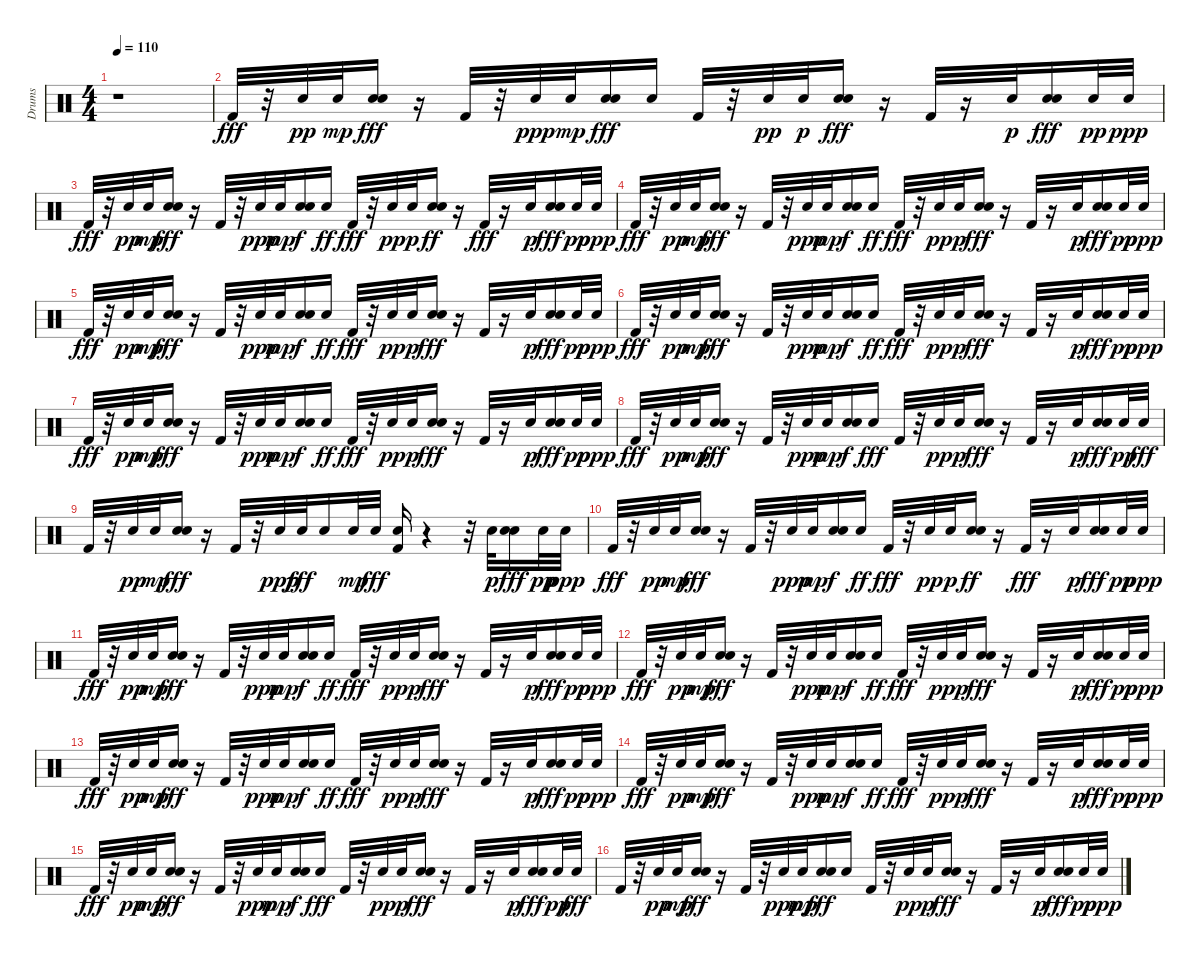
\track ("Drums" "Drums") {instrument percussion}
\staff {score}
\articulation defaults
\ts (4 4)
\tempo 110
\clef neutral
\ks c
r.1{dy fff} |
"Kick (hit) 2".32 r.32 "Electric Snare (hit)".32{dy pp} "Electric Snare (hit)".32{dy mp} ("Snare (hit) 2" "Electric Snare (hit)").16{dy fff} r.16 "Kick (hit) 2".32 r.32 "Electric Snare (hit)".32{dy ppp} "Electric Snare (hit)".32{dy mp} ("Snare (hit) 2" "Electric Snare (hit)").16{dy fff} "Electric Snare (hit)".16 "Kick (hit) 2".32 r.32 "Electric Snare (hit)".32{dy pp} "Electric Snare (hit)".32{dy p} ("Snare (hit) 2" "Electric Snare (hit)").16{dy fff} r.16 "Kick (hit) 2".32 r.16 "Electric Snare (hit)".32{dy p} ("Snare (hit) 2" "Electric Snare (hit)").16{dy fff} "Electric Snare (hit)".32{dy pp} "Electric Snare (hit)".32{dy ppp} |
"Kick (hit) 2".32{dy fff} r.32 "Electric Snare (hit)".32{dy pp} "Electric Snare (hit)".32{dy mp} ("Snare (hit) 2" "Electric Snare (hit)").16{dy fff} r.16 "Kick (hit) 2".32 r.32 "Electric Snare (hit)".32{dy ppp} "Electric Snare (hit)".32{dy mp} ("Snare (hit) 2" "Electric Snare (hit)").16{dy f} "Electric Snare (hit)".16{dy ff} "Kick (hit) 2".32{dy fff} r.32 "Electric Snare (hit)".32{dy pp} "Electric Snare (hit)".32{dy p} ("Snare (hit) 2" "Electric Snare (hit)").16{dy ff} r.16 "Kick (hit) 2".32{dy fff} r.16 "Electric Snare (hit)".32{dy p} ("Snare (hit) 2" "Electric Snare (hit)").16{dy fff} "Electric Snare (hit)".32{dy pp} "Electric Snare (hit)".32{dy ppp} |
"Kick (hit) 2".32{dy fff} r.32 "Electric Snare (hit)".32{dy pp} "Electric Snare (hit)".32{dy mp} ("Snare (hit) 2" "Electric Snare (hit)").16{dy fff} r.16 "Kick (hit) 2".32 r.32 "Electric Snare (hit)".32{dy ppp} "Electric Snare (hit)".32{dy mp} ("Snare (hit) 2" "Electric Snare (hit)").16{dy f} "Electric Snare (hit)".16{dy ff} "Kick (hit) 2".32{dy fff} r.32 "Electric Snare (hit)".32{dy pp} "Electric Snare (hit)".32{dy p} ("Snare (hit) 2" "Electric Snare (hit)").16{dy fff} r.16 "Kick (hit) 2".32 r.16 "Electric Snare (hit)".32{dy p} ("Snare (hit) 2" "Electric Snare (hit)").16{dy fff} "Electric Snare (hit)".32{dy pp} "Electric Snare (hit)".32{dy ppp} |
"Kick (hit) 2".32{dy fff} r.32 "Electric Snare (hit)".32{dy pp} "Electric Snare (hit)".32{dy mp} ("Snare (hit) 2" "Electric Snare (hit)").16{dy fff} r.16 "Kick (hit) 2".32 r.32 "Electric Snare (hit)".32{dy ppp} "Electric Snare (hit)".32{dy mp} ("Snare (hit) 2" "Electric Snare (hit)").16{dy f} "Electric Snare (hit)".16{dy ff} "Kick (hit) 2".32{dy fff} r.32 "Electric Snare (hit)".32{dy pp} "Electric Snare (hit)".32{dy p} ("Snare (hit) 2" "Electric Snare (hit)").16{dy fff} r.16 "Kick (hit) 2".32 r.16 "Electric Snare (hit)".32{dy p} ("Snare (hit) 2" "Electric Snare (hit)").16{dy fff} "Electric Snare (hit)".32{dy pp} "Electric Snare (hit)".32{dy ppp} |
"Kick (hit) 2".32{dy fff} r.32 "Electric Snare (hit)".32{dy pp} "Electric Snare (hit)".32{dy mp} ("Snare (hit) 2" "Electric Snare (hit)").16{dy fff} r.16 "Kick (hit) 2".32 r.32 "Electric Snare (hit)".32{dy ppp} "Electric Snare (hit)".32{dy mp} ("Snare (hit) 2" "Electric Snare (hit)").16{dy f} "Electric Snare (hit)".16{dy ff} "Kick (hit) 2".32{dy fff} r.32 "Electric Snare (hit)".32{dy pp} "Electric Snare (hit)".32{dy p} ("Snare (hit) 2" "Electric Snare (hit)").16{dy fff} r.16 "Kick (hit) 2".32 r.16 "Electric Snare (hit)".32{dy p} ("Snare (hit) 2" "Electric Snare (hit)").16{dy fff} "Electric Snare (hit)".32{dy pp} "Electric Snare (hit)".32{dy ppp} |
"Kick (hit) 2".32{dy fff} r.32 "Electric Snare (hit)".32{dy pp} "Electric Snare (hit)".32{dy mp} ("Snare (hit) 2" "Electric Snare (hit)").16{dy fff} r.16 "Kick (hit) 2".32 r.32 "Electric Snare (hit)".32{dy ppp} "Electric Snare (hit)".32{dy mp} ("Snare (hit) 2" "Electric Snare (hit)").16{dy f} "Electric Snare (hit)".16{dy ff} "Kick (hit) 2".32{dy fff} r.32 "Electric Snare (hit)".32{dy pp} "Electric Snare (hit)".32{dy p} ("Snare (hit) 2" "Electric Snare (hit)").16{dy fff} r.16 "Kick (hit) 2".32 r.16 "Electric Snare (hit)".32{dy p} ("Snare (hit) 2" "Electric Snare (hit)").16{dy fff} "Electric Snare (hit)".32{dy pp} "Electric Snare (hit)".32{dy ppp} |
"Kick (hit) 2".32{dy fff} r.32 "Electric Snare (hit)".32{dy pp} "Electric Snare (hit)".32{dy mp} ("Snare (hit) 2" "Electric Snare (hit)").16{dy fff} r.16 "Kick (hit) 2".32 r.32 "Electric Snare (hit)".32{dy ppp} "Electric Snare (hit)".32{dy mp} ("Snare (hit) 2" "Electric Snare (hit)").16{dy f} "Electric Snare (hit)".16{dy fff} "Kick (hit) 2".32 r.32 "Electric Snare (hit)".32{dy pp} "Electric Snare (hit)".32{dy p} ("Snare (hit) 2" "Electric Snare (hit)").16{dy fff} r.16 "Kick (hit) 2".32 r.16 "Electric Snare (hit)".32{dy p} ("Snare (hit) 2" "Electric Snare (hit)").16{dy fff} "Electric Snare (hit)".32{dy pp} "Electric Snare (hit)".32{dy fff} |
"Kick (hit) 2".32 r.32 "Electric Snare (hit)".32{dy pp} "Electric Snare (hit)".32{dy mp} ("Snare (hit) 2" "Electric Snare (hit)").16{dy fff} r.16 "Kick (hit) 2".32 r.32 "Snare (hit) 2".32{dy ppp} "Electric Snare (hit)".32{dy fff} "Snare (hit) 2".16 "Snare (hit) 2".32{dy mp} "Snare (hit) 2".32{dy fff} ("Kick (hit) 2" "Snare (hit) 2").16 r.4 r.32 "Electric Snare (hit)".32{dy p} ("Snare (hit) 2" "Electric Snare (hit)").16{dy fff} "Electric Snare (hit)".32{dy pp} "Electric Snare (hit)".32{dy ppp} |
"Kick (hit) 2".32{dy fff} r.32 "Electric Snare (hit)".32{dy pp} "Electric Snare (hit)".32{dy mp} ("Snare (hit) 2" "Electric Snare (hit)").16{dy fff} r.16 "Kick (hit) 2".32 r.32 "Electric Snare (hit)".32{dy ppp} "Electric Snare (hit)".32{dy mp} ("Snare (hit) 2" "Electric Snare (hit)").16{dy f} "Electric Snare (hit)".16{dy ff} "Kick (hit) 2".32{dy fff} r.32 "Electric Snare (hit)".32{dy pp} "Electric Snare (hit)".32{dy p} ("Snare (hit) 2" "Electric Snare (hit)").16{dy ff} r.16 "Kick (hit) 2".32{dy fff} r.16 "Electric Snare (hit)".32{dy p} ("Snare (hit) 2" "Electric Snare (hit)").16{dy fff} "Electric Snare (hit)".32{dy pp} "Electric Snare (hit)".32{dy ppp} |
"Kick (hit) 2".32{dy fff} r.32 "Electric Snare (hit)".32{dy pp} "Electric Snare (hit)".32{dy mp} ("Snare (hit) 2" "Electric Snare (hit)").16{dy fff} r.16 "Kick (hit) 2".32 r.32 "Electric Snare (hit)".32{dy ppp} "Electric Snare (hit)".32{dy mp} ("Snare (hit) 2" "Electric Snare (hit)").16{dy f} "Electric Snare (hit)".16{dy ff} "Kick (hit) 2".32{dy fff} r.32 "Electric Snare (hit)".32{dy pp} "Electric Snare (hit)".32{dy p} ("Snare (hit) 2" "Electric Snare (hit)").16{dy fff} r.16 "Kick (hit) 2".32 r.16 "Electric Snare (hit)".32{dy p} ("Snare (hit) 2" "Electric Snare (hit)").16{dy fff} "Electric Snare (hit)".32{dy pp} "Electric Snare (hit)".32{dy ppp} |
"Kick (hit) 2".32{dy fff} r.32 "Electric Snare (hit)".32{dy pp} "Electric Snare (hit)".32{dy mp} ("Snare (hit) 2" "Electric Snare (hit)").16{dy fff} r.16 "Kick (hit) 2".32 r.32 "Electric Snare (hit)".32{dy ppp} "Electric Snare (hit)".32{dy mp} ("Snare (hit) 2" "Electric Snare (hit)").16{dy f} "Electric Snare (hit)".16{dy ff} "Kick (hit) 2".32{dy fff} r.32 "Electric Snare (hit)".32{dy pp} "Electric Snare (hit)".32{dy p} ("Snare (hit) 2" "Electric Snare (hit)").16{dy fff} r.16 "Kick (hit) 2".32 r.16 "Electric Snare (hit)".32{dy p} ("Snare (hit) 2" "Electric Snare (hit)").16{dy fff} "Electric Snare (hit)".32{dy pp} "Electric Snare (hit)".32{dy ppp} |
"Kick (hit) 2".32{dy fff} r.32 "Electric Snare (hit)".32{dy pp} "Electric Snare (hit)".32{dy mp} ("Snare (hit) 2" "Electric Snare (hit)").16{dy fff} r.16 "Kick (hit) 2".32 r.32 "Electric Snare (hit)".32{dy ppp} "Electric Snare (hit)".32{dy mp} ("Snare (hit) 2" "Electric Snare (hit)").16{dy f} "Electric Snare (hit)".16{dy ff} "Kick (hit) 2".32{dy fff} r.32 "Electric Snare (hit)".32{dy pp} "Electric Snare (hit)".32{dy p} ("Snare (hit) 2" "Electric Snare (hit)").16{dy fff} r.16 "Kick (hit) 2".32 r.16 "Electric Snare (hit)".32{dy p} ("Snare (hit) 2" "Electric Snare (hit)").16{dy fff} "Electric Snare (hit)".32{dy pp} "Electric Snare (hit)".32{dy ppp} |
"Kick (hit) 2".32{dy fff} r.32 "Electric Snare (hit)".32{dy pp} "Electric Snare (hit)".32{dy mp} ("Snare (hit) 2" "Electric Snare (hit)").16{dy fff} r.16 "Kick (hit) 2".32 r.32 "Electric Snare (hit)".32{dy ppp} "Electric Snare (hit)".32{dy mp} ("Snare (hit) 2" "Electric Snare (hit)").16{dy f} "Electric Snare (hit)".16{dy ff} "Kick (hit) 2".32{dy fff} r.32 "Electric Snare (hit)".32{dy pp} "Electric Snare (hit)".32{dy p} ("Snare (hit) 2" "Electric Snare (hit)").16{dy fff} r.16 "Kick (hit) 2".32 r.16 "Electric Snare (hit)".32{dy p} ("Snare (hit) 2" "Electric Snare (hit)").16{dy fff} "Electric Snare (hit)".32{dy pp} "Electric Snare (hit)".32{dy ppp} |
"Kick (hit) 2".32{dy fff} r.32 "Electric Snare (hit)".32{dy pp} "Electric Snare (hit)".32{dy mp} ("Snare (hit) 2" "Electric Snare (hit)").16{dy fff} r.16 "Kick (hit) 2".32 r.32 "Electric Snare (hit)".32{dy ppp} "Electric Snare (hit)".32{dy mp} ("Snare (hit) 2" "Electric Snare (hit)").16{dy f} "Electric Snare (hit)".16{dy fff} "Kick (hit) 2".32 r.32 "Electric Snare (hit)".32{dy pp} "Electric Snare (hit)".32{dy p} ("Snare (hit) 2" "Electric Snare (hit)").16{dy fff} r.16 "Kick (hit) 2".32 r.16 "Electric Snare (hit)".32{dy p} ("Snare (hit) 2" "Electric Snare (hit)").16{dy fff} "Electric Snare (hit)".32{dy pp} "Electric Snare (hit)".32{dy fff} |
"Kick (hit) 2".32 r.32 "Electric Snare (hit)".32{dy pp} "Electric Snare (hit)".32{dy mp} ("Snare (hit) 2" "Electric Snare (hit)").16{dy fff} r.16 "Kick (hit) 2".32 r.32 "Electric Snare (hit)".32{dy ppp} "Electric Snare (hit)".32{dy mp} ("Snare (hit) 2" "Electric Snare (hit)").16{dy fff} "Electric Snare (hit)".16 "Kick (hit) 2".32 r.32 "Electric Snare (hit)".32{dy pp} "Electric Snare (hit)".32{dy p} ("Snare (hit) 2" "Electric Snare (hit)").16{dy fff} r.16 "Kick (hit) 2".32 r.16 "Electric Snare (hit)".32{dy p} ("Snare (hit) 2" "Electric Snare (hit)").16{dy fff} "Electric Snare (hit)".32{dy pp} "Electric Snare (hit)".32{dy ppp}
